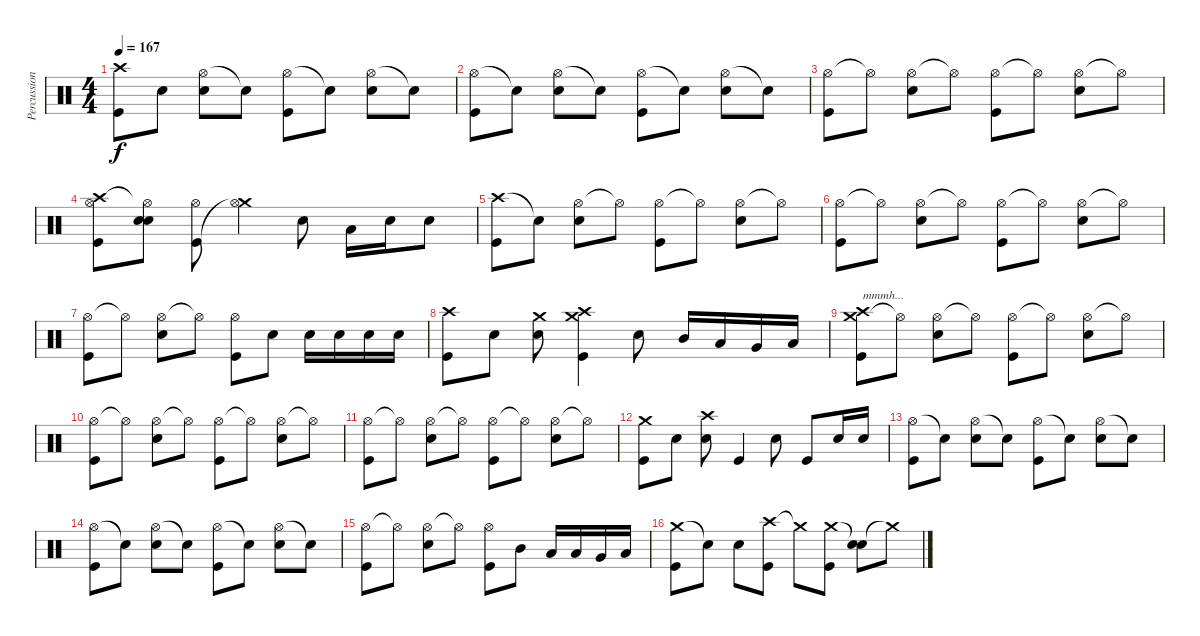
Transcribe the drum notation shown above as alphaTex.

\track ("Percussions" "Percussion") {instrument percussion}
\staff {score}
\articulation defaults
\ts (4 4)
\tempo 167
\clef neutral
\ks c
("Crash high (hit)" "Kick (hit)").8{dy f volume 15} "Snare (hit)".8 ("Hi-Hat (open)" "Electric Snare (hit)").8 "Snare (hit)"{t}.8 ("Hi-Hat (open)" "Kick (hit)").8 "Snare (hit)"{t}.8 ("Hi-Hat (open)" "Electric Snare (hit)").8 "Snare (hit)"{t}.8 |
("Hi-Hat (open)" "Kick (hit)").8 "Snare (hit)"{t}.8 ("Hi-Hat (open)" "Electric Snare (hit)").8 "Snare (hit)"{t}.8 ("Hi-Hat (open)" "Kick (hit)").8 "Snare (hit)"{t}.8 ("Hi-Hat (open)" "Electric Snare (hit)").8 "Snare (hit)"{t}.8 |
("Hi-Hat (open)" "Kick (hit)").8 "Hi-Hat (open)"{t}.8 ("Hi-Hat (open)" "Electric Snare (hit)").8 "Hi-Hat (open)"{t}.8 ("Hi-Hat (open)" "Kick (hit)").8 "Hi-Hat (open)"{t}.8 ("Hi-Hat (open)" "Electric Snare (hit)").8 "Hi-Hat (open)"{t}.8 |
("Crash high (hit)" "Hi-Hat (open)" "Kick (hit)").8{volume 15} ("Hi-Hat (open)"{t} "Electric Snare (hit)" "Snare (hit)").8 ("Hi-Hat (open)" "Kick (hit)").8 ("Crash medium (hit)" "Hi-Hat (open)"{t}).4 "Electric Snare (hit)".8 "Low Floor Tom (hit)".16 "Electric Snare (hit)".16 "Electric Snare (hit)".8 |
("Crash high (hit)" "Kick (hit)").8 "Snare (hit)"{t}.8 ("Hi-Hat (open)" "Electric Snare (hit)").8 "Hi-Hat (open)"{t}.8 ("Hi-Hat (open)" "Kick (hit)").8 "Hi-Hat (open)"{t}.8 ("Hi-Hat (open)" "Electric Snare (hit)").8 "Hi-Hat (open)"{t}.8 |
("Hi-Hat (open)" "Kick (hit)").8 "Hi-Hat (open)"{t}.8 ("Hi-Hat (open)" "Electric Snare (hit)").8 "Hi-Hat (open)"{t}.8 ("Hi-Hat (open)" "Kick (hit)").8 "Hi-Hat (open)"{t}.8 ("Hi-Hat (open)" "Electric Snare (hit)").8 "Hi-Hat (open)"{t}.8 |
("Hi-Hat (open)" "Kick (hit)").8{volume 15} "Hi-Hat (open)"{t}.8 ("Hi-Hat (open)" "Electric Snare (hit)").8 "Hi-Hat (open)"{t}.8 ("Hi-Hat (open)" "Kick (hit)").8 "Electric Snare (hit)".8 "Electric Snare (hit)".16 "Electric Snare (hit)".16 "Electric Snare (hit)".16 "Electric Snare (hit)".16 |
("Crash high (hit)" "Kick (hit)").8 "Snare (hit)".8 ("Crash medium (hit)" "Electric Snare (hit)").8 ("Crash medium (hit)" "Crash high (hit)" "Kick (hit)").4 "Electric Snare (hit)".8 "Mid Tom (hit)".16 "Low Tom (hit)".16 "Very Low Tom (hit)".16 "Low Floor Tom (hit)".16 |
("Crash medium (hit)" "Crash high (hit)" "Kick (hit)").8{txt "mmmh..."} "Hi-Hat (open)"{t}.8 ("Hi-Hat (open)" "Electric Snare (hit)").8 "Hi-Hat (open)"{t}.8 ("Hi-Hat (open)" "Kick (hit)").8 "Hi-Hat (open)"{t}.8 ("Hi-Hat (open)" "Electric Snare (hit)").8 "Hi-Hat (open)"{t}.8 |
("Hi-Hat (open)" "Kick (hit)").8 "Hi-Hat (open)"{t}.8 ("Hi-Hat (open)" "Electric Snare (hit)").8 "Hi-Hat (open)"{t}.8 ("Hi-Hat (open)" "Kick (hit)").8 "Hi-Hat (open)"{t}.8 ("Hi-Hat (open)" "Electric Snare (hit)").8 "Hi-Hat (open)"{t}.8 |
("Hi-Hat (open)" "Kick (hit)").8 "Hi-Hat (open)"{t}.8 ("Hi-Hat (open)" "Electric Snare (hit)").8 "Hi-Hat (open)"{t}.8 ("Hi-Hat (open)" "Kick (hit)").8 "Hi-Hat (open)"{t}.8 ("Hi-Hat (open)" "Electric Snare (hit)").8 "Hi-Hat (open)"{t}.8 |
("Crash medium (hit)" "Kick (hit)").8{volume 15} "Snare (hit)".8 ("Crash high (hit)" "Electric Snare (hit)").8 "Kick (hit)".4 "Electric Snare (hit)".8 "Kick (hit)".8 "Electric Snare (hit)".16 "Electric Snare (hit)".16 |
("Hi-Hat (open)" "Kick (hit)").8{volume 15} "Snare (hit)"{t}.8 ("Hi-Hat (open)" "Electric Snare (hit)").8 "Snare (hit)"{t}.8 ("Hi-Hat (open)" "Kick (hit)").8 "Snare (hit)"{t}.8 ("Hi-Hat (open)" "Electric Snare (hit)").8 "Snare (hit)"{t}.8 |
("Hi-Hat (open)" "Kick (hit)").8 "Snare (hit)"{t}.8 ("Hi-Hat (open)" "Electric Snare (hit)").8 "Snare (hit)"{t}.8 ("Hi-Hat (open)" "Kick (hit)").8 "Snare (hit)"{t}.8 ("Hi-Hat (open)" "Electric Snare (hit)").8 "Snare (hit)"{t}.8 |
("Hi-Hat (open)" "Kick (hit)").8{volume 15} "Hi-Hat (open)"{t}.8 ("Hi-Hat (open)" "Electric Snare (hit)").8 "Hi-Hat (open)"{t}.8 ("Hi-Hat (open)" "Kick (hit)").8 "Mid Tom (hit)".8 "Low Tom (hit)".16 "Low Tom (hit)".16 "Very Low Tom (hit)".16 "Low Floor Tom (hit)".16 |
("Crash medium (hit)" "Kick (hit)").8 "Snare (hit)"{t}.8 "Electric Snare (hit)".8 ("Crash high (hit)" "Kick (hit)").8 "Crash medium (hit)"{t}.8 ("Crash medium (hit)" "Kick (hit)").8 ("Snare (hit)"{t} "Electric Snare (hit)").8 "Crash medium (hit)"{t}.8
